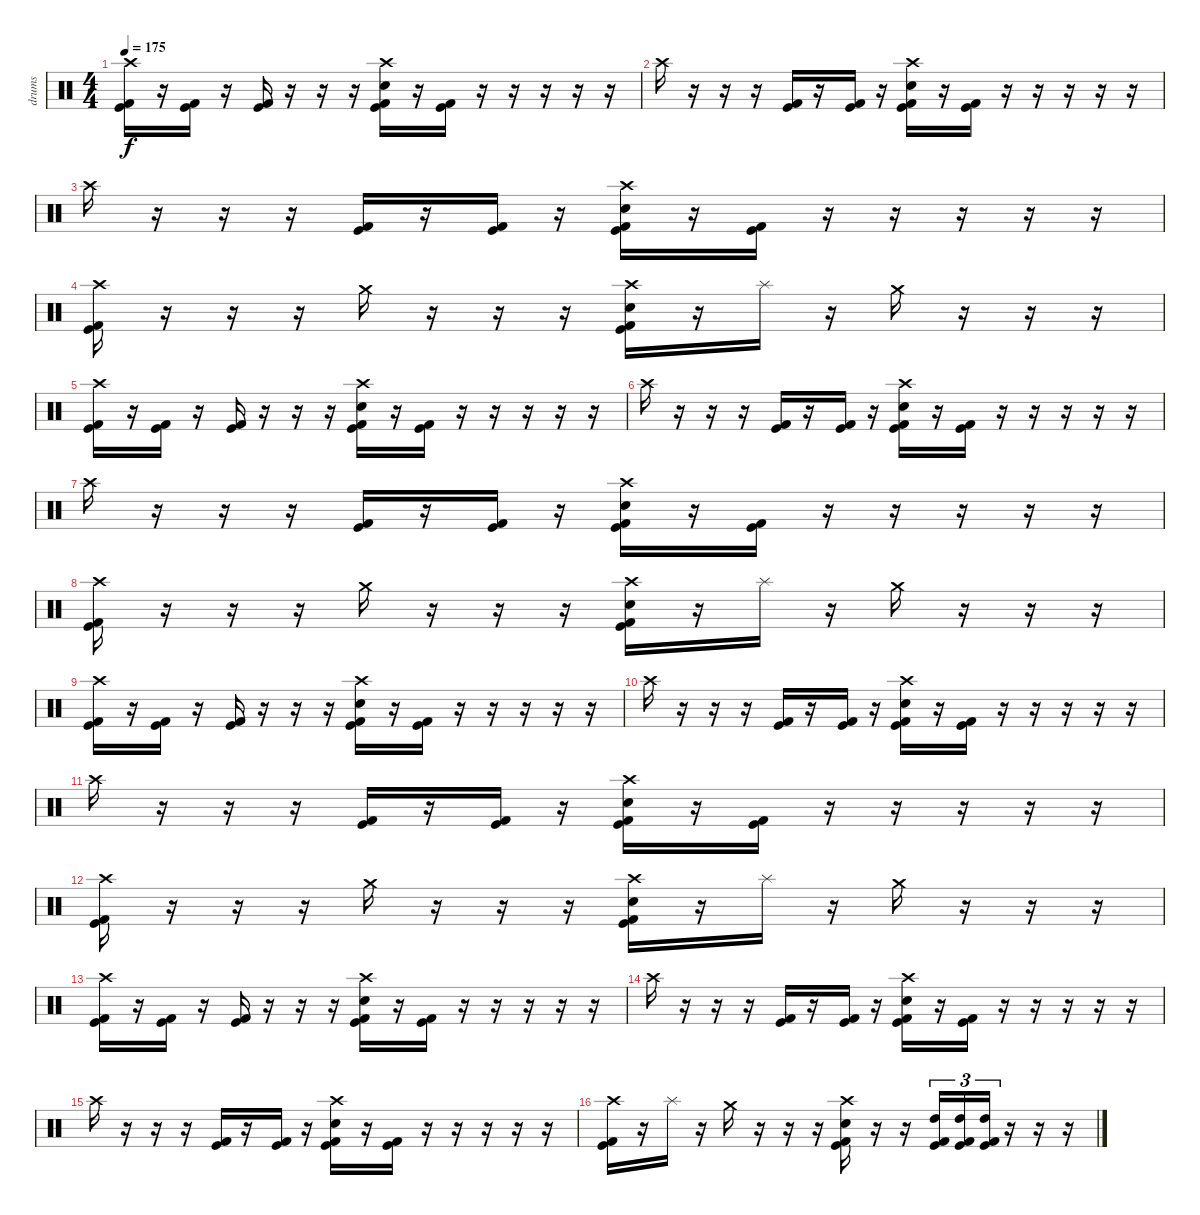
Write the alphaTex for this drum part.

\track ("drums" "drums") {instrument percussion}
\staff {score}
\articulation defaults
\ts (4 4)
\tempo 175
\clef neutral
\ks c
("Crash high (hit)" "Kick (hit)" "Kick (hit) 2").16{dy f} r.16 ("Kick (hit)" "Kick (hit) 2").16 r.16 ("Kick (hit)" "Kick (hit) 2").16 r.16 r.16 r.16 ("Crash high (hit)" "Electric Snare (hit)" "Kick (hit)" "Kick (hit) 2").16 r.16 ("Kick (hit)" "Kick (hit) 2").16 r.16 r.16 r.16 r.16 r.16 |
"Crash high (hit)".16 r.16 r.16 r.16 ("Kick (hit)" "Kick (hit) 2").16 r.16 ("Kick (hit)" "Kick (hit) 2").16 r.16 ("Crash high (hit)" "Electric Snare (hit)" "Kick (hit)" "Kick (hit) 2").16 r.16 ("Kick (hit)" "Kick (hit) 2").16 r.16 r.16 r.16 r.16 r.16 |
"Crash high (hit)".16 r.16 r.16 r.16 ("Kick (hit)" "Kick (hit) 2").16 r.16 ("Kick (hit)" "Kick (hit) 2").16 r.16 ("Crash high (hit)" "Electric Snare (hit)" "Kick (hit)" "Kick (hit) 2").16 r.16 ("Kick (hit)" "Kick (hit) 2").16 r.16 r.16 r.16 r.16 r.16 |
("Crash high (hit)" "Kick (hit)" "Kick (hit) 2").16 r.16 r.16 r.16 "Crash medium (hit)".16 r.16 r.16 r.16 ("Crash high (hit)" "Electric Snare (hit)" "Kick (hit)" "Kick (hit) 2").16 r.16 "Splash (hit)".16 r.16 "Crash medium (hit)".16 r.16 r.16 r.16 |
("Crash high (hit)" "Kick (hit)" "Kick (hit) 2").16 r.16 ("Kick (hit)" "Kick (hit) 2").16 r.16 ("Kick (hit)" "Kick (hit) 2").16 r.16 r.16 r.16 ("Crash high (hit)" "Electric Snare (hit)" "Kick (hit)" "Kick (hit) 2").16 r.16 ("Kick (hit)" "Kick (hit) 2").16 r.16 r.16 r.16 r.16 r.16 |
"Crash high (hit)".16 r.16 r.16 r.16 ("Kick (hit)" "Kick (hit) 2").16 r.16 ("Kick (hit)" "Kick (hit) 2").16 r.16 ("Crash high (hit)" "Electric Snare (hit)" "Kick (hit)" "Kick (hit) 2").16 r.16 ("Kick (hit)" "Kick (hit) 2").16 r.16 r.16 r.16 r.16 r.16 |
"Crash high (hit)".16 r.16 r.16 r.16 ("Kick (hit)" "Kick (hit) 2").16 r.16 ("Kick (hit)" "Kick (hit) 2").16 r.16 ("Crash high (hit)" "Electric Snare (hit)" "Kick (hit)" "Kick (hit) 2").16 r.16 ("Kick (hit)" "Kick (hit) 2").16 r.16 r.16 r.16 r.16 r.16 |
("Crash high (hit)" "Kick (hit)" "Kick (hit) 2").16 r.16 r.16 r.16 "Crash medium (hit)".16 r.16 r.16 r.16 ("Crash high (hit)" "Electric Snare (hit)" "Kick (hit)" "Kick (hit) 2").16 r.16 "Splash (hit)".16 r.16 "Crash medium (hit)".16 r.16 r.16 r.16 |
("Crash high (hit)" "Kick (hit)" "Kick (hit) 2").16 r.16 ("Kick (hit)" "Kick (hit) 2").16 r.16 ("Kick (hit)" "Kick (hit) 2").16 r.16 r.16 r.16 ("Crash high (hit)" "Electric Snare (hit)" "Kick (hit)" "Kick (hit) 2").16 r.16 ("Kick (hit)" "Kick (hit) 2").16 r.16 r.16 r.16 r.16 r.16 |
"Crash high (hit)".16 r.16 r.16 r.16 ("Kick (hit)" "Kick (hit) 2").16 r.16 ("Kick (hit)" "Kick (hit) 2").16 r.16 ("Crash high (hit)" "Electric Snare (hit)" "Kick (hit)" "Kick (hit) 2").16 r.16 ("Kick (hit)" "Kick (hit) 2").16 r.16 r.16 r.16 r.16 r.16 |
"Crash high (hit)".16 r.16 r.16 r.16 ("Kick (hit)" "Kick (hit) 2").16 r.16 ("Kick (hit)" "Kick (hit) 2").16 r.16 ("Crash high (hit)" "Electric Snare (hit)" "Kick (hit)" "Kick (hit) 2").16 r.16 ("Kick (hit)" "Kick (hit) 2").16 r.16 r.16 r.16 r.16 r.16 |
("Crash high (hit)" "Kick (hit)" "Kick (hit) 2").16 r.16 r.16 r.16 "Crash medium (hit)".16 r.16 r.16 r.16 ("Crash high (hit)" "Electric Snare (hit)" "Kick (hit)" "Kick (hit) 2").16 r.16 "Splash (hit)".16 r.16 "Crash medium (hit)".16 r.16 r.16 r.16 |
("Crash high (hit)" "Kick (hit)" "Kick (hit) 2").16 r.16 ("Kick (hit)" "Kick (hit) 2").16 r.16 ("Kick (hit)" "Kick (hit) 2").16 r.16 r.16 r.16 ("Crash high (hit)" "Electric Snare (hit)" "Kick (hit)" "Kick (hit) 2").16 r.16 ("Kick (hit)" "Kick (hit) 2").16 r.16 r.16 r.16 r.16 r.16 |
"Crash high (hit)".16 r.16 r.16 r.16 ("Kick (hit)" "Kick (hit) 2").16 r.16 ("Kick (hit)" "Kick (hit) 2").16 r.16 ("Crash high (hit)" "Electric Snare (hit)" "Kick (hit)" "Kick (hit) 2").16 r.16 ("Kick (hit)" "Kick (hit) 2").16 r.16 r.16 r.16 r.16 r.16 |
"Crash high (hit)".16 r.16 r.16 r.16 ("Kick (hit)" "Kick (hit) 2").16 r.16 ("Kick (hit)" "Kick (hit) 2").16 r.16 ("Crash high (hit)" "Electric Snare (hit)" "Kick (hit)" "Kick (hit) 2").16 r.16 ("Kick (hit)" "Kick (hit) 2").16 r.16 r.16 r.16 r.16 r.16 |
("Crash high (hit)" "Kick (hit)" "Kick (hit) 2").16 r.16 "Splash (hit)".16 r.16 "Crash medium (hit)".16 r.16 r.16 r.16 ("Crash high (hit)" "Electric Snare (hit)" "Kick (hit)" "Kick (hit) 2").16 r.16 r.16 ("High Tom (hit)" "Kick (hit)" "Kick (hit) 2").16{tu (3 2)} ("High Tom (hit)" "Kick (hit)" "Kick (hit) 2").16{tu (3 2)} ("High Tom (hit)" "Kick (hit)" "Kick (hit) 2").16{tu (3 2)} r.16 r.16 r.16
